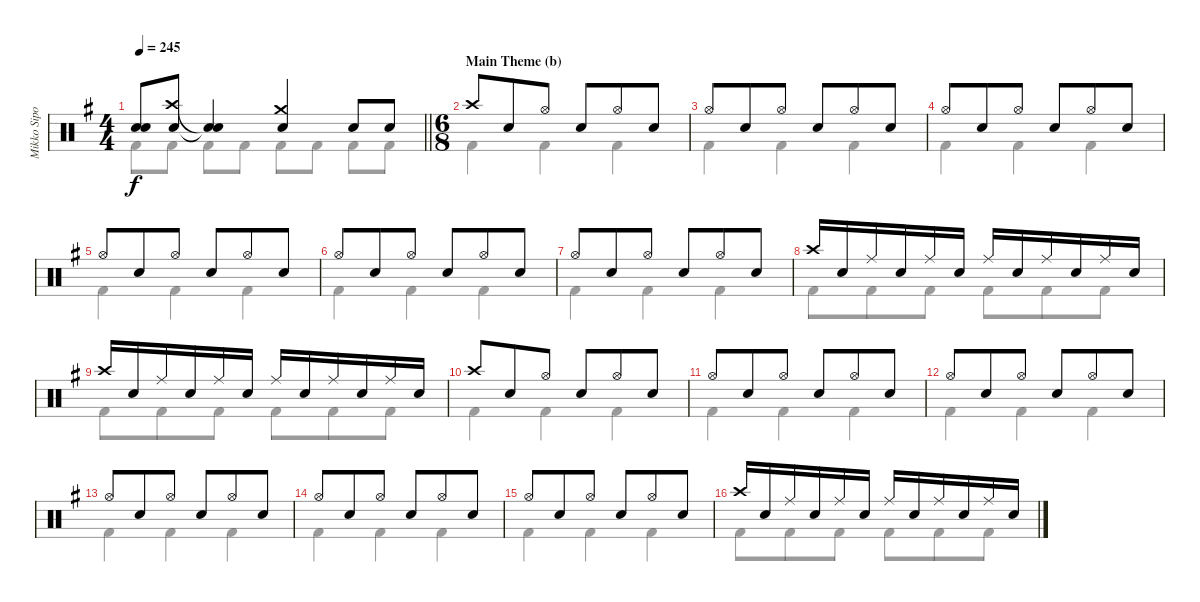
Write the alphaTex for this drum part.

\track ("Mikko Sipola (drums)" "Mikko Sipo") {instrument percussion}
\staff {score}
\articulation defaults
\voice
\ts (4 4)
\tempo 245
\clef neutral
\barLineRight lightlight
\ks eminor
("Snare (hit)"{t} "Snare (hit)"{t}).8{dy f} ("Crash high (hit)" "Snare (hit) 2").8 ("Snare (hit)"{t} "Snare (hit)"{t}).4 ("Crash medium (hit)" "Snare (hit) 2").4 "Snare (hit) 2".8 "Snare (hit) 2".8 |
\ts (6 8)
\section ("" "Main Theme (b)")
"Crash high (hit)".8 "Snare (hit) 2".8 "Hi-Hat (open)".8 "Snare (hit) 2".8 "Hi-Hat (open)".8 "Snare (hit) 2".8 |
"Hi-Hat (open)".8 "Snare (hit) 2".8 "Hi-Hat (open)".8 "Snare (hit) 2".8 "Hi-Hat (open)".8 "Snare (hit) 2".8 |
"Hi-Hat (open)".8 "Snare (hit) 2".8 "Hi-Hat (open)".8 "Snare (hit) 2".8 "Hi-Hat (open)".8 "Snare (hit) 2".8 |
"Hi-Hat (open)".8 "Snare (hit) 2".8 "Hi-Hat (open)".8 "Snare (hit) 2".8 "Hi-Hat (open)".8 "Snare (hit) 2".8 |
"Hi-Hat (open)".8 "Snare (hit) 2".8 "Hi-Hat (open)".8 "Snare (hit) 2".8 "Hi-Hat (open)".8 "Snare (hit) 2".8 |
"Hi-Hat (open)".8 "Snare (hit) 2".8 "Hi-Hat (open)".8 "Snare (hit) 2".8 "Hi-Hat (open)".8 "Snare (hit) 2".8 |
"Crash high (hit)".16 "Snare (hit) 2".16 "Ride (middle)".16 "Snare (hit) 2".16 "Ride (middle)".16 "Snare (hit) 2".16 "Ride (middle)".16 "Snare (hit) 2".16 "Ride (middle)".16 "Snare (hit) 2".16 "Ride (middle)".16 "Snare (hit) 2".16 |
"Crash high (hit)".16 "Snare (hit) 2".16 "Ride (middle)".16 "Snare (hit) 2".16 "Ride (middle)".16 "Snare (hit) 2".16 "Ride (middle)".16 "Snare (hit) 2".16 "Ride (middle)".16 "Snare (hit) 2".16 "Ride (middle)".16 "Snare (hit) 2".16 |
"Crash high (hit)".8 "Snare (hit) 2".8 "Hi-Hat (open)".8 "Snare (hit) 2".8 "Hi-Hat (open)".8 "Snare (hit) 2".8 |
"Hi-Hat (open)".8 "Snare (hit) 2".8 "Hi-Hat (open)".8 "Snare (hit) 2".8 "Hi-Hat (open)".8 "Snare (hit) 2".8 |
"Hi-Hat (open)".8 "Snare (hit) 2".8 "Hi-Hat (open)".8 "Snare (hit) 2".8 "Hi-Hat (open)".8 "Snare (hit) 2".8 |
"Hi-Hat (open)".8 "Snare (hit) 2".8 "Hi-Hat (open)".8 "Snare (hit) 2".8 "Hi-Hat (open)".8 "Snare (hit) 2".8 |
"Hi-Hat (open)".8 "Snare (hit) 2".8 "Hi-Hat (open)".8 "Snare (hit) 2".8 "Hi-Hat (open)".8 "Snare (hit) 2".8 |
"Hi-Hat (open)".8 "Snare (hit) 2".8 "Hi-Hat (open)".8 "Snare (hit) 2".8 "Hi-Hat (open)".8 "Snare (hit) 2".8 |
"Crash high (hit)".16 "Snare (hit) 2".16 "Ride (middle)".16 "Snare (hit) 2".16 "Ride (middle)".16 "Snare (hit) 2".16 "Ride (middle)".16 "Snare (hit) 2".16 "Ride (middle)".16 "Snare (hit) 2".16 "Ride (middle)".16 "Snare (hit) 2".16
\voice
\clef neutral
\ottava regular
\simile none
\barLineRight lightlight
\ks eminor "Kick (hit) 2".8{dy f} "Kick (hit) 2".8 "Kick (hit) 2".8 "Kick (hit) 2".8 "Kick (hit) 2".8 "Kick (hit) 2".8 "Kick (hit) 2".8 "Kick (hit) 2".8
|
"Kick (hit) 2".4 "Kick (hit) 2".4 "Kick (hit) 2".4 |
"Kick (hit) 2".4 "Kick (hit) 2".4 "Kick (hit) 2".4 |
"Kick (hit) 2".4 "Kick (hit) 2".4 "Kick (hit) 2".4 |
"Kick (hit) 2".4 "Kick (hit) 2".4 "Kick (hit) 2".4 |
"Kick (hit) 2".4 "Kick (hit) 2".4 "Kick (hit) 2".4 |
"Kick (hit) 2".4 "Kick (hit) 2".4 "Kick (hit) 2".4 |
"Kick (hit) 2".8 "Kick (hit) 2".8 "Kick (hit) 2".8 "Kick (hit) 2".8 "Kick (hit) 2".8 "Kick (hit) 2".8 |
"Kick (hit) 2".8 "Kick (hit) 2".8 "Kick (hit) 2".8 "Kick (hit) 2".8 "Kick (hit) 2".8 "Kick (hit) 2".8 |
"Kick (hit) 2".4 "Kick (hit) 2".4 "Kick (hit) 2".4 |
"Kick (hit) 2".4 "Kick (hit) 2".4 "Kick (hit) 2".4 |
"Kick (hit) 2".4 "Kick (hit) 2".4 "Kick (hit) 2".4 |
"Kick (hit) 2".4 "Kick (hit) 2".4 "Kick (hit) 2".4 |
"Kick (hit) 2".4 "Kick (hit) 2".4 "Kick (hit) 2".4 |
"Kick (hit) 2".4 "Kick (hit) 2".4 "Kick (hit) 2".4 |
"Kick (hit) 2".8 "Kick (hit) 2".8 "Kick (hit) 2".8 "Kick (hit) 2".8 "Kick (hit) 2".8 "Kick (hit) 2".8
